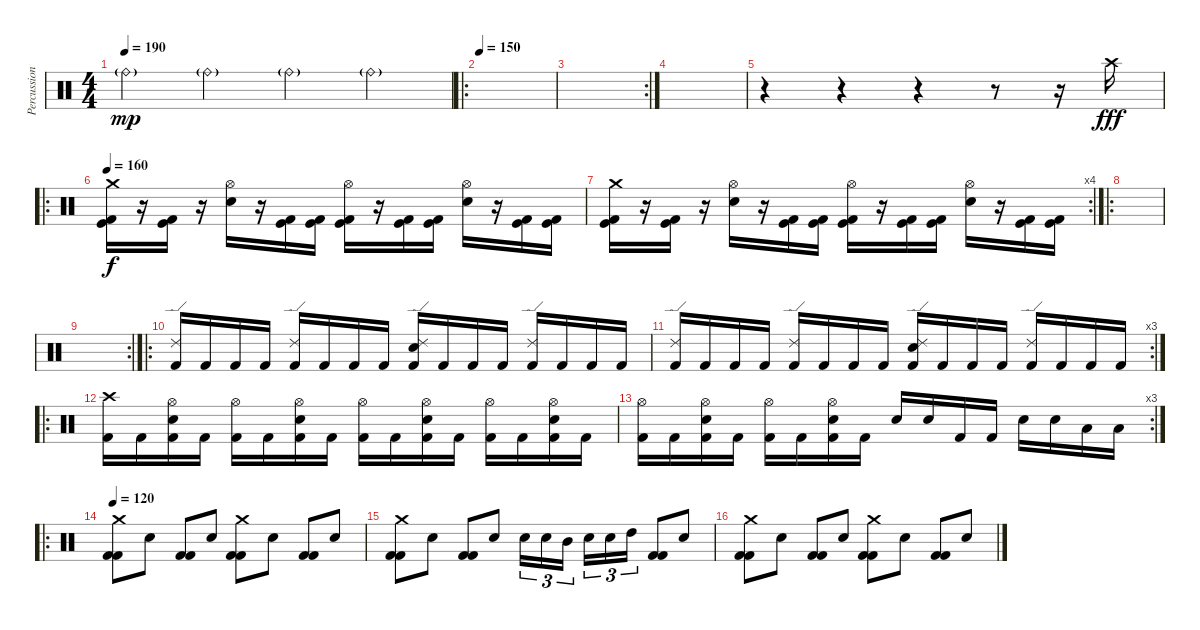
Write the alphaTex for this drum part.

\track ("Percussion" "Percussion") {instrument percussion}
\staff {score}
\articulation defaults
\ts (4 4)
\tempo 190
\clef neutral
\ks c "Ride (bell)"{g}.4{dy mp} "Ride (bell)"{g}.4 "Ride (bell)"{g}.4 "Ride (bell)"{g}.4
|
\ro
\tempo 150
|
\rc 2
|
|
r.4 r.4 r.4 r.8 r.16 "Crash high (hit)".16{dy fff} |
\ro
\tempo 160
("Crash medium (hit)" "Kick (hit)" "Kick (hit) 2").16{dy f} r.16 ("Kick (hit)" "Kick (hit) 2").16 r.16 ("Hi-Hat (open)" "Electric Snare (hit)").16 r.16 ("Kick (hit)" "Kick (hit) 2").16 ("Kick (hit)" "Kick (hit) 2").16 ("Hi-Hat (open)" "Kick (hit)" "Kick (hit) 2").16 r.16 ("Kick (hit)" "Kick (hit) 2").16 ("Kick (hit)" "Kick (hit) 2").16 ("Hi-Hat (open)" "Electric Snare (hit)").16 r.16 ("Kick (hit)" "Kick (hit) 2").16 ("Kick (hit)" "Kick (hit) 2").16 |
\rc 4
("Crash medium (hit)" "Kick (hit)" "Kick (hit) 2").16 r.16 ("Kick (hit)" "Kick (hit) 2").16 r.16 ("Hi-Hat (open)" "Electric Snare (hit)").16 r.16 ("Kick (hit)" "Kick (hit) 2").16 ("Kick (hit)" "Kick (hit) 2").16 ("Hi-Hat (open)" "Kick (hit)" "Kick (hit) 2").16 r.16 ("Kick (hit)" "Kick (hit) 2").16 ("Kick (hit)" "Kick (hit) 2").16 ("Hi-Hat (open)" "Electric Snare (hit)").16 r.16 ("Kick (hit)" "Kick (hit) 2").16 ("Kick (hit)" "Kick (hit) 2").16 |
\ro
|
\rc 2
|
\ro
("Ride (edge) 2" "Kick (hit) 2").16 "Kick (hit) 2".16 "Kick (hit) 2".16 "Kick (hit) 2".16 ("Ride (edge) 2" "Kick (hit) 2").16 "Kick (hit) 2".16 "Kick (hit) 2".16 "Kick (hit) 2".16 ("Ride (edge) 2" "Electric Snare (hit)" "Kick (hit) 2").16 "Kick (hit) 2".16 "Kick (hit) 2".16 "Kick (hit) 2".16 ("Ride (edge) 2" "Kick (hit) 2").16 "Kick (hit) 2".16 "Kick (hit) 2".16 "Kick (hit) 2".16 |
\rc 3
("Ride (edge) 2" "Kick (hit) 2").16 "Kick (hit) 2".16 "Kick (hit) 2".16 "Kick (hit) 2".16 ("Ride (edge) 2" "Kick (hit) 2").16 "Kick (hit) 2".16 "Kick (hit) 2".16 "Kick (hit) 2".16 ("Ride (edge) 2" "Electric Snare (hit)" "Kick (hit) 2").16 "Kick (hit) 2".16 "Kick (hit) 2".16 "Kick (hit) 2".16 ("Ride (edge) 2" "Kick (hit) 2").16 "Kick (hit) 2".16 "Kick (hit) 2".16 "Kick (hit) 2".16 |
\ro
("Crash high (hit)" "Kick (hit) 2").16 "Kick (hit) 2".16 ("Hi-Hat (open)" "Snare (hit) 2" "Kick (hit) 2").16 "Kick (hit) 2".16 ("Hi-Hat (open)" "Kick (hit) 2").16 "Kick (hit) 2".16 ("Hi-Hat (open)" "Snare (hit) 2" "Kick (hit) 2").16 "Kick (hit) 2".16 ("Hi-Hat (open)" "Kick (hit) 2").16 "Kick (hit) 2".16 ("Hi-Hat (open)" "Snare (hit) 2" "Kick (hit) 2").16 "Kick (hit) 2".16 ("Hi-Hat (open)" "Kick (hit) 2").16 "Kick (hit) 2".16 ("Hi-Hat (open)" "Snare (hit) 2" "Kick (hit) 2").16 "Kick (hit) 2".16 |
\rc 3
("Hi-Hat (open)" "Kick (hit) 2").16 "Kick (hit) 2".16 ("Hi-Hat (open)" "Snare (hit) 2" "Kick (hit) 2").16 "Kick (hit) 2".16 ("Hi-Hat (open)" "Kick (hit) 2").16 "Kick (hit) 2".16 ("Hi-Hat (open)" "Snare (hit) 2" "Kick (hit) 2").16 "Kick (hit) 2".16 "Snare (hit) 2".16 "Snare (hit) 2".16 "Kick (hit) 2".16 "Kick (hit) 2".16 "Snare (hit) 2".16 "Snare (hit) 2".16 "Low Tom (hit)".16 "Low Tom (hit)".16 |
\ro
\tempo 120
("Crash medium (hit)" "Kick (hit) 2" "Kick (hit) 2").8 "Snare (hit) 2".8 ("Kick (hit) 2" "Kick (hit) 2").8 "Snare (hit) 2".8 ("Crash medium (hit)" "Kick (hit) 2" "Kick (hit) 2").8 "Snare (hit) 2".8 ("Kick (hit) 2" "Kick (hit) 2").8 "Snare (hit) 2".8 |
("Crash medium (hit)" "Kick (hit) 2" "Kick (hit) 2").8 "Snare (hit) 2".8 ("Kick (hit) 2" "Kick (hit) 2").8 "Snare (hit) 2".8 "Snare (hit) 2".16{tu (3 2)} "Snare (hit) 2".16{tu (3 2)} "Mid Tom (hit)".16{tu (3 2)} "Snare (hit) 2".16{tu (3 2)} "Snare (hit) 2".16{tu (3 2)} "High Tom (hit)".16{tu (3 2)} ("Kick (hit) 2" "Kick (hit) 2").8 "Snare (hit) 2".8 |
("Crash medium (hit)" "Kick (hit) 2" "Kick (hit) 2").8 "Snare (hit) 2".8 ("Kick (hit) 2" "Kick (hit) 2").8 "Snare (hit) 2".8 ("Crash medium (hit)" "Kick (hit) 2" "Kick (hit) 2").8 "Snare (hit) 2".8 ("Kick (hit) 2" "Kick (hit) 2").8 "Snare (hit) 2".8
